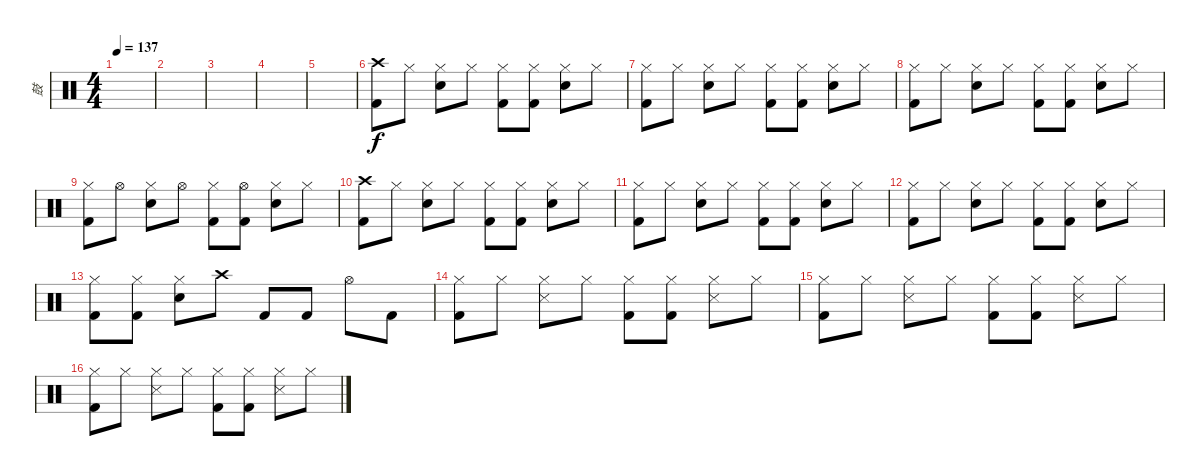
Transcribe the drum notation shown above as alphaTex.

\track ("鼓" "鼓") {instrument percussion}
\staff {score}
\articulation defaults
\ts (4 4)
\tempo 137
\clef neutral
\ks c
|
|
|
|
|
("Crash high (hit)" "Kick (hit) 2").8 "Hi-Hat (closed)".8 ("Hi-Hat (closed)" "Snare (hit) 2").8 "Hi-Hat (closed)".8 ("Hi-Hat (closed)" "Kick (hit) 2").8 ("Hi-Hat (closed)" "Kick (hit) 2").8 ("Hi-Hat (closed)" "Snare (hit) 2").8 "Hi-Hat (closed)".8 |
("Hi-Hat (closed)" "Kick (hit) 2").8 "Hi-Hat (closed)".8 ("Hi-Hat (closed)" "Snare (hit) 2").8 "Hi-Hat (closed)".8 ("Hi-Hat (closed)" "Kick (hit) 2").8 ("Hi-Hat (closed)" "Kick (hit) 2").8 ("Hi-Hat (closed)" "Snare (hit) 2").8 "Hi-Hat (closed)".8 |
("Hi-Hat (closed)" "Kick (hit) 2").8 "Hi-Hat (closed)".8 ("Hi-Hat (closed)" "Snare (hit) 2").8 "Hi-Hat (closed)".8 ("Hi-Hat (closed)" "Kick (hit) 2").8 ("Hi-Hat (closed)" "Kick (hit) 2").8 ("Hi-Hat (closed)" "Snare (hit) 2").8 "Hi-Hat (closed)".8 |
("Hi-Hat (closed)" "Kick (hit) 2").8 "Hi-Hat (open)".8 ("Hi-Hat (closed)" "Snare (hit) 2").8 "Hi-Hat (open)".8 ("Hi-Hat (closed)" "Kick (hit) 2").8 ("Hi-Hat (open)" "Kick (hit) 2").8 ("Hi-Hat (closed)" "Snare (hit) 2").8 "Hi-Hat (closed)".8 |
("Crash high (hit)" "Kick (hit) 2").8 "Hi-Hat (closed)".8 ("Hi-Hat (closed)" "Snare (hit) 2").8 "Hi-Hat (closed)".8 ("Hi-Hat (closed)" "Kick (hit) 2").8 ("Hi-Hat (closed)" "Kick (hit) 2").8 ("Hi-Hat (closed)" "Snare (hit) 2").8 "Hi-Hat (closed)".8 |
("Hi-Hat (closed)" "Kick (hit) 2").8 "Hi-Hat (closed)".8 ("Hi-Hat (closed)" "Snare (hit) 2").8 "Hi-Hat (closed)".8 ("Hi-Hat (closed)" "Kick (hit) 2").8 ("Hi-Hat (closed)" "Kick (hit) 2").8 ("Hi-Hat (closed)" "Snare (hit) 2").8 "Hi-Hat (closed)".8 |
("Hi-Hat (closed)" "Kick (hit) 2").8 "Hi-Hat (closed)".8 ("Hi-Hat (closed)" "Snare (hit) 2").8 "Hi-Hat (closed)".8 ("Hi-Hat (closed)" "Kick (hit) 2").8 ("Hi-Hat (closed)" "Kick (hit) 2").8 ("Hi-Hat (closed)" "Snare (hit) 2").8 "Hi-Hat (closed)".8 |
("Hi-Hat (closed)" "Kick (hit) 2").8 ("Hi-Hat (closed)" "Kick (hit) 2").8 ("Hi-Hat (closed)" "Snare (hit) 2").8 "Crash high (hit)".8 "Kick (hit) 2".8 "Kick (hit) 2".8 "Hi-Hat (open)".8 "Kick (hit) 2".8 |
("Hi-Hat (closed)" "Kick (hit) 2").8 "Hi-Hat (closed)".8 ("Hi-Hat (closed)" "Snare (side stick) 3").8 "Hi-Hat (closed)".8 ("Hi-Hat (closed)" "Kick (hit) 2").8 ("Hi-Hat (closed)" "Kick (hit) 2").8 ("Hi-Hat (closed)" "Snare (side stick) 3").8 "Hi-Hat (closed)".8 |
("Hi-Hat (closed)" "Kick (hit) 2").8 "Hi-Hat (closed)".8 ("Hi-Hat (closed)" "Snare (side stick) 3").8 "Hi-Hat (closed)".8 ("Hi-Hat (closed)" "Kick (hit) 2").8 ("Hi-Hat (closed)" "Kick (hit) 2").8 ("Hi-Hat (closed)" "Snare (side stick) 3").8 "Hi-Hat (closed)".8 |
("Hi-Hat (closed)" "Kick (hit) 2").8 "Hi-Hat (closed)".8 ("Hi-Hat (closed)" "Snare (side stick) 3").8 "Hi-Hat (closed)".8 ("Hi-Hat (closed)" "Kick (hit) 2").8 ("Hi-Hat (closed)" "Kick (hit) 2").8 ("Hi-Hat (closed)" "Snare (side stick) 3").8 "Hi-Hat (closed)".8
